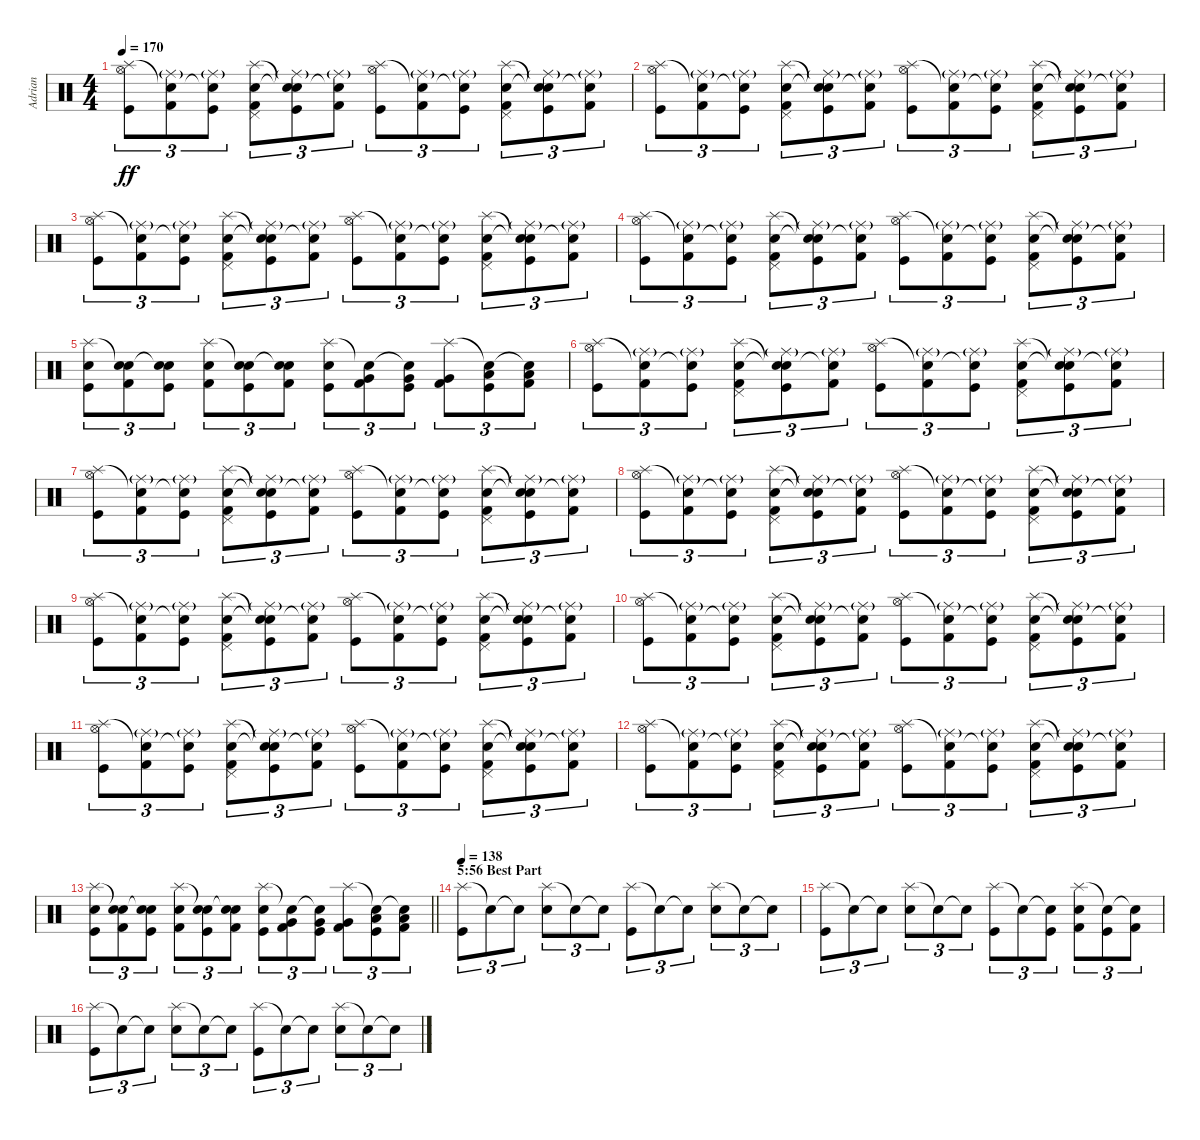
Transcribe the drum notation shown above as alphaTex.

\track ("Adrian" "Adrian") {instrument percussion}
\staff {score}
\articulation defaults
\ts (4 4)
\tempo 170
\clef neutral
\ks c
("Splash (hit)" "Hi-Hat (open)" "Kick (hit)").8{tu (3 2) dy ff} ("Snare (hit)"{t} "Ride (middle)"{g} "Kick (hit) 2").8{tu (3 2)} ("Snare (hit)"{t} "Ride (middle)"{g} "Kick (hit)").8{tu (3 2)} ("Splash (hit)" "Pedal Hi-Hat (hit)" "Electric Snare (hit)" "Kick (hit) 2").8{tu (3 2)} ("Snare (hit)"{t} "Ride (middle)"{g} "Snare (hit)"{t} "Kick (hit)").8{tu (3 2)} ("Snare (hit)"{t} "Ride (middle)"{g} "Kick (hit) 2").8{tu (3 2)} ("Splash (hit)" "Hi-Hat (open)" "Kick (hit)").8{tu (3 2)} ("Snare (hit)"{t} "Ride (middle)"{g} "Kick (hit) 2").8{tu (3 2)} ("Snare (hit)"{t} "Ride (middle)"{g} "Kick (hit)").8{tu (3 2)} ("Splash (hit)" "Pedal Hi-Hat (hit)" "Electric Snare (hit)" "Kick (hit) 2").8{tu (3 2)} ("Snare (hit)"{t} "Ride (middle)"{g} "Snare (hit)"{t} "Kick (hit)").8{tu (3 2)} ("Snare (hit)"{t} "Ride (middle)"{g} "Kick (hit) 2").8{tu (3 2)} |
("Splash (hit)" "Hi-Hat (open)" "Kick (hit)").8{tu (3 2)} ("Snare (hit)"{t} "Ride (middle)"{g} "Kick (hit) 2").8{tu (3 2)} ("Snare (hit)"{t} "Ride (middle)"{g} "Kick (hit)").8{tu (3 2)} ("Splash (hit)" "Pedal Hi-Hat (hit)" "Electric Snare (hit)" "Kick (hit) 2").8{tu (3 2)} ("Snare (hit)"{t} "Ride (middle)"{g} "Snare (hit)"{t} "Kick (hit)").8{tu (3 2)} ("Snare (hit)"{t} "Ride (middle)"{g} "Kick (hit) 2").8{tu (3 2)} ("Splash (hit)" "Hi-Hat (open)" "Kick (hit)").8{tu (3 2)} ("Snare (hit)"{t} "Ride (middle)"{g} "Kick (hit) 2").8{tu (3 2)} ("Snare (hit)"{t} "Ride (middle)"{g} "Kick (hit)").8{tu (3 2)} ("Splash (hit)" "Pedal Hi-Hat (hit)" "Electric Snare (hit)" "Kick (hit) 2").8{tu (3 2)} ("Snare (hit)"{t} "Ride (middle)"{g} "Snare (hit)"{t} "Kick (hit)").8{tu (3 2)} ("Snare (hit)"{t} "Ride (middle)"{g} "Kick (hit) 2").8{tu (3 2)} |
("Splash (hit)" "Hi-Hat (open)" "Kick (hit)").8{tu (3 2)} ("Snare (hit)"{t} "Ride (middle)"{g} "Kick (hit) 2").8{tu (3 2)} ("Snare (hit)"{t} "Ride (middle)"{g} "Kick (hit)").8{tu (3 2)} ("Splash (hit)" "Pedal Hi-Hat (hit)" "Electric Snare (hit)" "Kick (hit) 2").8{tu (3 2)} ("Snare (hit)"{t} "Ride (middle)"{g} "Snare (hit)"{t} "Kick (hit)").8{tu (3 2)} ("Snare (hit)"{t} "Ride (middle)"{g} "Kick (hit) 2").8{tu (3 2)} ("Splash (hit)" "Hi-Hat (open)" "Kick (hit)").8{tu (3 2)} ("Snare (hit)"{t} "Ride (middle)"{g} "Kick (hit) 2").8{tu (3 2)} ("Snare (hit)"{t} "Ride (middle)"{g} "Kick (hit)").8{tu (3 2)} ("Splash (hit)" "Pedal Hi-Hat (hit)" "Electric Snare (hit)" "Kick (hit) 2").8{tu (3 2)} ("Snare (hit)"{t} "Ride (middle)"{g} "Snare (hit)"{t} "Kick (hit)").8{tu (3 2)} ("Snare (hit)"{t} "Ride (middle)"{g} "Kick (hit) 2").8{tu (3 2)} |
("Splash (hit)" "Hi-Hat (open)" "Kick (hit)").8{tu (3 2)} ("Snare (hit)"{t} "Ride (middle)"{g} "Kick (hit) 2").8{tu (3 2)} ("Snare (hit)"{t} "Ride (middle)"{g} "Kick (hit)").8{tu (3 2)} ("Splash (hit)" "Pedal Hi-Hat (hit)" "Electric Snare (hit)" "Kick (hit) 2").8{tu (3 2)} ("Snare (hit)"{t} "Ride (middle)"{g} "Snare (hit)"{t} "Kick (hit)").8{tu (3 2)} ("Snare (hit)"{t} "Ride (middle)"{g} "Kick (hit) 2").8{tu (3 2)} ("Splash (hit)" "Hi-Hat (open)" "Kick (hit)").8{tu (3 2)} ("Snare (hit)"{t} "Ride (middle)"{g} "Kick (hit) 2").8{tu (3 2)} ("Snare (hit)"{t} "Ride (middle)"{g} "Kick (hit)").8{tu (3 2)} ("Splash (hit)" "Pedal Hi-Hat (hit)" "Electric Snare (hit)" "Kick (hit) 2").8{tu (3 2)} ("Snare (hit)"{t} "Ride (middle)"{g} "Snare (hit)"{t} "Kick (hit)").8{tu (3 2)} ("Snare (hit)"{t} "Ride (middle)"{g} "Kick (hit) 2").8{tu (3 2)} |
("Splash (hit)" "Electric Snare (hit)" "Kick (hit)").8{tu (3 2)} ("Snare (hit)"{t} "Electric Snare (hit)" "Kick (hit) 2").8{tu (3 2)} ("Snare (hit)"{t} "Electric Snare (hit)" "Kick (hit)").8{tu (3 2)} ("Splash (hit)" "Electric Snare (hit)" "Kick (hit) 2").8{tu (3 2)} ("Snare (hit)"{t} "Electric Snare (hit)" "Kick (hit)").8{tu (3 2)} ("Snare (hit)"{t} "Electric Snare (hit)" "Kick (hit) 2").8{tu (3 2)} ("Splash (hit)" "Electric Snare (hit)" "Kick (hit)").8{tu (3 2)} ("Snare (hit)"{t} "Very Low Tom (hit)" "Kick (hit) 2").8{tu (3 2)} ("Snare (hit)"{t} "Very Low Tom (hit)" "Kick (hit)").8{tu (3 2)} ("Splash (hit)" "Very Low Tom (hit)" "Kick (hit) 2").8{tu (3 2)} ("Snare (hit)"{t} "Low Floor Tom (hit)" "Kick (hit)").8{tu (3 2)} ("Snare (hit)"{t} "Low Floor Tom (hit)" "Kick (hit) 2").8{tu (3 2)} |
("Splash (hit)" "Hi-Hat (open)" "Kick (hit)").8{tu (3 2)} ("Snare (hit)"{t} "Ride (middle)"{g} "Kick (hit) 2").8{tu (3 2)} ("Snare (hit)"{t} "Ride (middle)"{g} "Kick (hit)").8{tu (3 2)} ("Splash (hit)" "Pedal Hi-Hat (hit)" "Electric Snare (hit)" "Kick (hit) 2").8{tu (3 2)} ("Snare (hit)"{t} "Ride (middle)"{g} "Snare (hit)"{t} "Kick (hit)").8{tu (3 2)} ("Snare (hit)"{t} "Ride (middle)"{g} "Kick (hit) 2").8{tu (3 2)} ("Splash (hit)" "Hi-Hat (open)" "Kick (hit)").8{tu (3 2)} ("Snare (hit)"{t} "Ride (middle)"{g} "Kick (hit) 2").8{tu (3 2)} ("Snare (hit)"{t} "Ride (middle)"{g} "Kick (hit)").8{tu (3 2)} ("Splash (hit)" "Pedal Hi-Hat (hit)" "Electric Snare (hit)" "Kick (hit) 2").8{tu (3 2)} ("Snare (hit)"{t} "Ride (middle)"{g} "Snare (hit)"{t} "Kick (hit)").8{tu (3 2)} ("Snare (hit)"{t} "Ride (middle)"{g} "Kick (hit) 2").8{tu (3 2)} |
("Splash (hit)" "Hi-Hat (open)" "Kick (hit)").8{tu (3 2)} ("Snare (hit)"{t} "Ride (middle)"{g} "Kick (hit) 2").8{tu (3 2)} ("Snare (hit)"{t} "Ride (middle)"{g} "Kick (hit)").8{tu (3 2)} ("Splash (hit)" "Pedal Hi-Hat (hit)" "Electric Snare (hit)" "Kick (hit) 2").8{tu (3 2)} ("Snare (hit)"{t} "Ride (middle)"{g} "Snare (hit)"{t} "Kick (hit)").8{tu (3 2)} ("Snare (hit)"{t} "Ride (middle)"{g} "Kick (hit) 2").8{tu (3 2)} ("Splash (hit)" "Hi-Hat (open)" "Kick (hit)").8{tu (3 2)} ("Snare (hit)"{t} "Ride (middle)"{g} "Kick (hit) 2").8{tu (3 2)} ("Snare (hit)"{t} "Ride (middle)"{g} "Kick (hit)").8{tu (3 2)} ("Splash (hit)" "Pedal Hi-Hat (hit)" "Electric Snare (hit)" "Kick (hit) 2").8{tu (3 2)} ("Snare (hit)"{t} "Ride (middle)"{g} "Snare (hit)"{t} "Kick (hit)").8{tu (3 2)} ("Snare (hit)"{t} "Ride (middle)"{g} "Kick (hit) 2").8{tu (3 2)} |
("Splash (hit)" "Hi-Hat (open)" "Kick (hit)").8{tu (3 2)} ("Snare (hit)"{t} "Ride (middle)"{g} "Kick (hit) 2").8{tu (3 2)} ("Snare (hit)"{t} "Ride (middle)"{g} "Kick (hit)").8{tu (3 2)} ("Splash (hit)" "Pedal Hi-Hat (hit)" "Electric Snare (hit)" "Kick (hit) 2").8{tu (3 2)} ("Snare (hit)"{t} "Ride (middle)"{g} "Snare (hit)"{t} "Kick (hit)").8{tu (3 2)} ("Snare (hit)"{t} "Ride (middle)"{g} "Kick (hit) 2").8{tu (3 2)} ("Splash (hit)" "Hi-Hat (open)" "Kick (hit)").8{tu (3 2)} ("Snare (hit)"{t} "Ride (middle)"{g} "Kick (hit) 2").8{tu (3 2)} ("Snare (hit)"{t} "Ride (middle)"{g} "Kick (hit)").8{tu (3 2)} ("Splash (hit)" "Pedal Hi-Hat (hit)" "Electric Snare (hit)" "Kick (hit) 2").8{tu (3 2)} ("Snare (hit)"{t} "Ride (middle)"{g} "Snare (hit)"{t} "Kick (hit)").8{tu (3 2)} ("Snare (hit)"{t} "Ride (middle)"{g} "Kick (hit) 2").8{tu (3 2)} |
("Splash (hit)" "Hi-Hat (open)" "Kick (hit)").8{tu (3 2)} ("Snare (hit)"{t} "Ride (middle)"{g} "Kick (hit) 2").8{tu (3 2)} ("Snare (hit)"{t} "Ride (middle)"{g} "Kick (hit)").8{tu (3 2)} ("Splash (hit)" "Pedal Hi-Hat (hit)" "Electric Snare (hit)" "Kick (hit) 2").8{tu (3 2)} ("Snare (hit)"{t} "Ride (middle)"{g} "Snare (hit)"{t} "Kick (hit)").8{tu (3 2)} ("Snare (hit)"{t} "Ride (middle)"{g} "Kick (hit) 2").8{tu (3 2)} ("Splash (hit)" "Hi-Hat (open)" "Kick (hit)").8{tu (3 2)} ("Snare (hit)"{t} "Ride (middle)"{g} "Kick (hit) 2").8{tu (3 2)} ("Snare (hit)"{t} "Ride (middle)"{g} "Kick (hit)").8{tu (3 2)} ("Splash (hit)" "Pedal Hi-Hat (hit)" "Electric Snare (hit)" "Kick (hit) 2").8{tu (3 2)} ("Snare (hit)"{t} "Ride (middle)"{g} "Snare (hit)"{t} "Kick (hit)").8{tu (3 2)} ("Snare (hit)"{t} "Ride (middle)"{g} "Kick (hit) 2").8{tu (3 2)} |
("Splash (hit)" "Hi-Hat (open)" "Kick (hit)").8{tu (3 2)} ("Snare (hit)"{t} "Ride (middle)"{g} "Kick (hit) 2").8{tu (3 2)} ("Snare (hit)"{t} "Ride (middle)"{g} "Kick (hit)").8{tu (3 2)} ("Splash (hit)" "Pedal Hi-Hat (hit)" "Electric Snare (hit)" "Kick (hit) 2").8{tu (3 2)} ("Snare (hit)"{t} "Ride (middle)"{g} "Snare (hit)"{t} "Kick (hit)").8{tu (3 2)} ("Snare (hit)"{t} "Ride (middle)"{g} "Kick (hit) 2").8{tu (3 2)} ("Splash (hit)" "Hi-Hat (open)" "Kick (hit)").8{tu (3 2)} ("Snare (hit)"{t} "Ride (middle)"{g} "Kick (hit) 2").8{tu (3 2)} ("Snare (hit)"{t} "Ride (middle)"{g} "Kick (hit)").8{tu (3 2)} ("Splash (hit)" "Pedal Hi-Hat (hit)" "Electric Snare (hit)" "Kick (hit) 2").8{tu (3 2)} ("Snare (hit)"{t} "Ride (middle)"{g} "Snare (hit)"{t} "Kick (hit)").8{tu (3 2)} ("Snare (hit)"{t} "Ride (middle)"{g} "Kick (hit) 2").8{tu (3 2)} |
("Splash (hit)" "Hi-Hat (open)" "Kick (hit)").8{tu (3 2)} ("Snare (hit)"{t} "Ride (middle)"{g} "Kick (hit) 2").8{tu (3 2)} ("Snare (hit)"{t} "Ride (middle)"{g} "Kick (hit)").8{tu (3 2)} ("Splash (hit)" "Pedal Hi-Hat (hit)" "Electric Snare (hit)" "Kick (hit) 2").8{tu (3 2)} ("Snare (hit)"{t} "Ride (middle)"{g} "Snare (hit)"{t} "Kick (hit)").8{tu (3 2)} ("Snare (hit)"{t} "Ride (middle)"{g} "Kick (hit) 2").8{tu (3 2)} ("Splash (hit)" "Hi-Hat (open)" "Kick (hit)").8{tu (3 2)} ("Snare (hit)"{t} "Ride (middle)"{g} "Kick (hit) 2").8{tu (3 2)} ("Snare (hit)"{t} "Ride (middle)"{g} "Kick (hit)").8{tu (3 2)} ("Splash (hit)" "Pedal Hi-Hat (hit)" "Electric Snare (hit)" "Kick (hit) 2").8{tu (3 2)} ("Snare (hit)"{t} "Ride (middle)"{g} "Snare (hit)"{t} "Kick (hit)").8{tu (3 2)} ("Snare (hit)"{t} "Ride (middle)"{g} "Kick (hit) 2").8{tu (3 2)} |
("Splash (hit)" "Hi-Hat (open)" "Kick (hit)").8{tu (3 2)} ("Snare (hit)"{t} "Ride (middle)"{g} "Kick (hit) 2").8{tu (3 2)} ("Snare (hit)"{t} "Ride (middle)"{g} "Kick (hit)").8{tu (3 2)} ("Splash (hit)" "Pedal Hi-Hat (hit)" "Electric Snare (hit)" "Kick (hit) 2").8{tu (3 2)} ("Snare (hit)"{t} "Ride (middle)"{g} "Snare (hit)"{t} "Kick (hit)").8{tu (3 2)} ("Snare (hit)"{t} "Ride (middle)"{g} "Kick (hit) 2").8{tu (3 2)} ("Splash (hit)" "Hi-Hat (open)" "Kick (hit)").8{tu (3 2)} ("Snare (hit)"{t} "Ride (middle)"{g} "Kick (hit) 2").8{tu (3 2)} ("Snare (hit)"{t} "Ride (middle)"{g} "Kick (hit)").8{tu (3 2)} ("Splash (hit)" "Pedal Hi-Hat (hit)" "Electric Snare (hit)" "Kick (hit) 2").8{tu (3 2)} ("Snare (hit)"{t} "Ride (middle)"{g} "Snare (hit)"{t} "Kick (hit)").8{tu (3 2)} ("Snare (hit)"{t} "Ride (middle)"{g} "Kick (hit) 2").8{tu (3 2)} |
\barLineRight lightlight
("Splash (hit)" "Electric Snare (hit)" "Kick (hit)").8{tu (3 2)} ("Snare (hit)"{t} "Electric Snare (hit)" "Kick (hit) 2").8{tu (3 2)} ("Snare (hit)"{t} "Electric Snare (hit)" "Kick (hit)").8{tu (3 2)} ("Splash (hit)" "Electric Snare (hit)" "Kick (hit) 2").8{tu (3 2)} ("Snare (hit)"{t} "Electric Snare (hit)" "Kick (hit)").8{tu (3 2)} ("Snare (hit)"{t} "Electric Snare (hit)" "Kick (hit) 2").8{tu (3 2)} ("Splash (hit)" "Electric Snare (hit)" "Kick (hit)").8{tu (3 2)} ("Snare (hit)"{t} "Very Low Tom (hit)" "Kick (hit) 2").8{tu (3 2)} ("Snare (hit)"{t} "Very Low Tom (hit)" "Kick (hit)").8{tu (3 2)} ("Splash (hit)" "Very Low Tom (hit)" "Kick (hit) 2").8{tu (3 2)} ("Snare (hit)"{t} "Low Floor Tom (hit)" "Kick (hit)").8{tu (3 2)} ("Snare (hit)"{t} "Low Floor Tom (hit)" "Kick (hit) 2").8{tu (3 2)} |
\section ("" "5:56 Best Part")
\tempo 138
("Splash (hit)" "Kick (hit)").8{tu (3 2)} "Snare (hit)"{t}.8{tu (3 2)} "Snare (hit)"{t}.8{tu (3 2)} ("Splash (hit)" "Electric Snare (hit)").8{tu (3 2)} "Snare (hit)"{t}.8{tu (3 2)} "Snare (hit)"{t}.8{tu (3 2)} ("Splash (hit)" "Kick (hit)").8{tu (3 2)} "Snare (hit)"{t}.8{tu (3 2)} "Snare (hit)"{t}.8{tu (3 2)} ("Splash (hit)" "Electric Snare (hit)").8{tu (3 2)} "Snare (hit)"{t}.8{tu (3 2)} "Snare (hit)"{t}.8{tu (3 2)} |
("Splash (hit)" "Kick (hit)").8{tu (3 2)} "Snare (hit)"{t}.8{tu (3 2)} "Snare (hit)"{t}.8{tu (3 2)} ("Splash (hit)" "Electric Snare (hit)").8{tu (3 2)} "Snare (hit)"{t}.8{tu (3 2)} "Snare (hit)"{t}.8{tu (3 2)} ("Splash (hit)" "Kick (hit)").8{tu (3 2)} "Snare (hit)"{t}.8{tu (3 2)} ("Snare (hit)"{t} "Kick (hit)").8{tu (3 2)} ("Splash (hit)" "Electric Snare (hit)" "Kick (hit) 2").8{tu (3 2)} ("Snare (hit)"{t} "Kick (hit)").8{tu (3 2)} ("Snare (hit)"{t} "Kick (hit) 2").8{tu (3 2)} |
("Splash (hit)" "Kick (hit)").8{tu (3 2)} "Snare (hit)"{t}.8{tu (3 2)} "Snare (hit)"{t}.8{tu (3 2)} ("Splash (hit)" "Electric Snare (hit)").8{tu (3 2)} "Snare (hit)"{t}.8{tu (3 2)} "Snare (hit)"{t}.8{tu (3 2)} ("Splash (hit)" "Kick (hit)").8{tu (3 2)} "Snare (hit)"{t}.8{tu (3 2)} "Snare (hit)"{t}.8{tu (3 2)} ("Splash (hit)" "Electric Snare (hit)").8{tu (3 2)} "Snare (hit)"{t}.8{tu (3 2)} "Snare (hit)"{t}.8{tu (3 2)}
